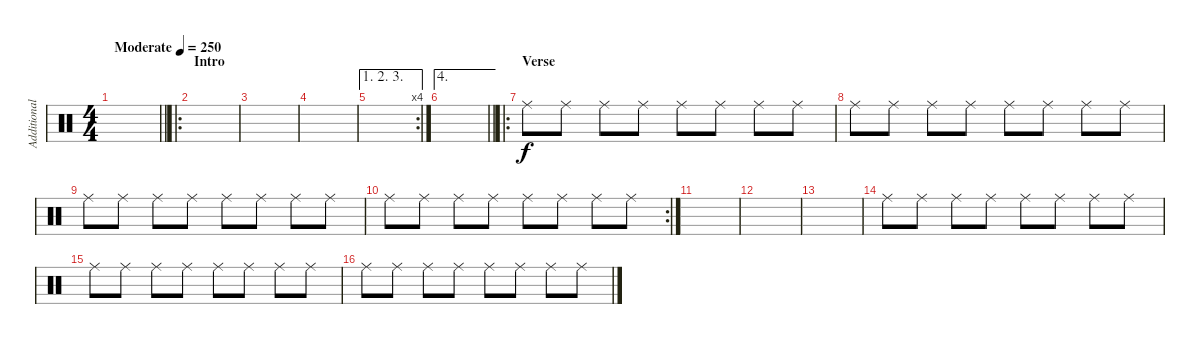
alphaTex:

\track ("Additional drums" "Additional") {instrument percussion}
\staff {score}
\articulation defaults
\ts (4 4)
\tempo (250 "Moderate")
\clef neutral
\barLineRight lightlight
\ks c
|
\ro
\section ("" "Intro")
|
|
|
\ae (1 2 3)
\rc 4
|
\ae 4
\barLineRight lightlight
|
\ro
\section ("" "Verse ")
"Ride (middle)".8 "Ride (middle)".8 "Ride (middle)".8 "Ride (middle)".8 "Ride (middle)".8 "Ride (middle)".8 "Ride (middle)".8 "Ride (middle)".8 |
"Ride (middle)".8 "Ride (middle)".8 "Ride (middle)".8 "Ride (middle)".8 "Ride (middle)".8 "Ride (middle)".8 "Ride (middle)".8 "Ride (middle)".8 |
"Ride (middle)".8 "Ride (middle)".8 "Ride (middle)".8 "Ride (middle)".8 "Ride (middle)".8 "Ride (middle)".8 "Ride (middle)".8 "Ride (middle)".8 |
\rc 2 "Ride (middle)".8 "Ride (middle)".8 "Ride (middle)".8 "Ride (middle)".8 "Ride (middle)".8 "Ride (middle)".8 "Ride (middle)".8 "Ride (middle)".8
|
|
|
|
"Ride (middle)".8 "Ride (middle)".8 "Ride (middle)".8 "Ride (middle)".8 "Ride (middle)".8 "Ride (middle)".8 "Ride (middle)".8 "Ride (middle)".8 |
"Ride (middle)".8 "Ride (middle)".8 "Ride (middle)".8 "Ride (middle)".8 "Ride (middle)".8 "Ride (middle)".8 "Ride (middle)".8 "Ride (middle)".8 |
"Ride (middle)".8 "Ride (middle)".8 "Ride (middle)".8 "Ride (middle)".8 "Ride (middle)".8 "Ride (middle)".8 "Ride (middle)".8 "Ride (middle)".8
